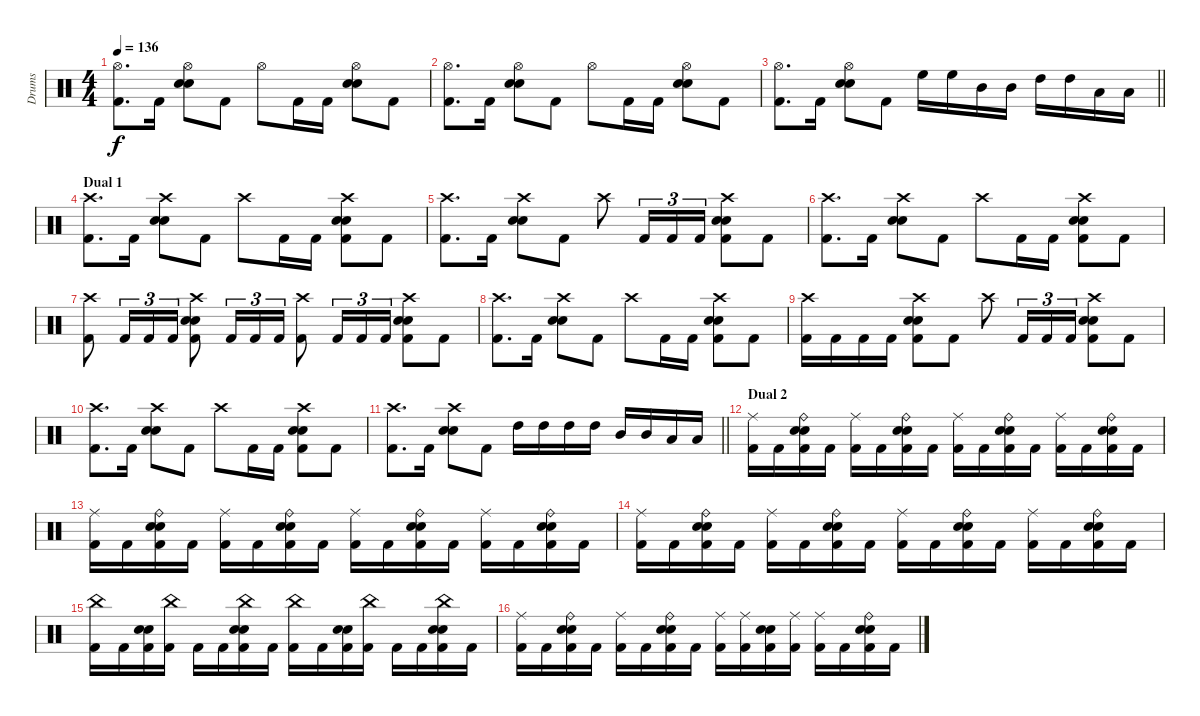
\track ("Drums" "Drums") {instrument percussion}
\staff {score}
\articulation defaults
\ts (4 4)
\tempo 136
\clef neutral
\ks c
("Hi-Hat (open)" "Kick (hit) 2").8{d dy f} "Kick (hit) 2".16 ("Hi-Hat (open)" "Electric Snare (hit)" "Snare (hit) 2").8 "Kick (hit) 2".8 "Hi-Hat (open)".8 "Kick (hit) 2".16 "Kick (hit) 2".16 ("Hi-Hat (open)" "Electric Snare (hit)" "Snare (hit) 2").8 "Kick (hit) 2".8 |
("Hi-Hat (open)" "Kick (hit) 2").8{d} "Kick (hit) 2".16 ("Hi-Hat (open)" "Electric Snare (hit)" "Snare (hit) 2").8 "Kick (hit) 2".8 "Hi-Hat (open)".8 "Kick (hit) 2".16 "Kick (hit) 2".16 ("Hi-Hat (open)" "Electric Snare (hit)" "Snare (hit) 2").8 "Kick (hit) 2".8 |
\barLineRight lightlight
("Hi-Hat (open)" "Kick (hit) 2").8{d} "Kick (hit) 2".16 ("Hi-Hat (open)" "Electric Snare (hit)" "Snare (hit) 2").8 "Kick (hit) 2".8 "High Floor Tom (hit)".16 "High Floor Tom (hit)".16 "Mid Tom (hit)".16 "Mid Tom (hit)".16 "High Tom (hit)".16 "High Tom (hit)".16 "Low Tom (hit)".16 "Low Tom (hit)".16 |
\section ("" "Dual 1")
("Crash high (hit)" "Kick (hit) 2").8{d} "Kick (hit) 2".16 ("Crash high (hit)" "Electric Snare (hit)" "Snare (hit) 2").8 "Kick (hit) 2".8 "Crash high (hit)".8 "Kick (hit) 2".16 "Kick (hit) 2".16 ("Crash high (hit)" "Electric Snare (hit)" "Snare (hit) 2" "Kick (hit) 2").8 "Kick (hit) 2".8 |
("Crash high (hit)" "Kick (hit) 2").8{d} "Kick (hit) 2".16 ("Crash high (hit)" "Electric Snare (hit)" "Snare (hit) 2").8 "Kick (hit) 2".8 "Crash high (hit)".8 "Kick (hit) 2".16{tu (3 2)} "Kick (hit) 2".16{tu (3 2)} "Kick (hit) 2".16{tu (3 2)} ("Crash high (hit)" "Electric Snare (hit)" "Snare (hit) 2" "Kick (hit) 2").8 "Kick (hit) 2".8 |
("Crash high (hit)" "Kick (hit) 2").8{d} "Kick (hit) 2".16 ("Crash high (hit)" "Electric Snare (hit)" "Snare (hit) 2").8 "Kick (hit) 2".8 "Crash high (hit)".8 "Kick (hit) 2".16 "Kick (hit) 2".16 ("Crash high (hit)" "Electric Snare (hit)" "Snare (hit) 2" "Kick (hit) 2").8 "Kick (hit) 2".8 |
("Crash high (hit)" "Kick (hit) 2").8 "Kick (hit) 2".16{tu (3 2)} "Kick (hit) 2".16{tu (3 2)} "Kick (hit) 2".16{tu (3 2)} ("Crash high (hit)" "Electric Snare (hit)" "Snare (hit) 2" "Kick (hit) 2").8 "Kick (hit) 2".16{tu (3 2)} "Kick (hit) 2".16{tu (3 2)} "Kick (hit) 2".16{tu (3 2)} ("Crash high (hit)" "Kick (hit) 2").8 "Kick (hit) 2".16{tu (3 2)} "Kick (hit) 2".16{tu (3 2)} "Kick (hit) 2".16{tu (3 2)} ("Crash high (hit)" "Electric Snare (hit)" "Snare (hit) 2" "Kick (hit) 2").8 "Kick (hit) 2".8 |
("Crash high (hit)" "Kick (hit) 2").8{d} "Kick (hit) 2".16 ("Crash high (hit)" "Electric Snare (hit)" "Snare (hit) 2").8 "Kick (hit) 2".8 "Crash high (hit)".8 "Kick (hit) 2".16 "Kick (hit) 2".16 ("Crash high (hit)" "Electric Snare (hit)" "Snare (hit) 2" "Kick (hit) 2").8 "Kick (hit) 2".8 |
("Crash high (hit)" "Kick (hit) 2").16 "Kick (hit) 2".16 "Kick (hit) 2".16 "Kick (hit) 2".16 ("Crash high (hit)" "Electric Snare (hit)" "Snare (hit) 2" "Kick (hit) 2").8 "Kick (hit) 2".8 "Crash high (hit)".8 "Kick (hit) 2".16{tu (3 2)} "Kick (hit) 2".16{tu (3 2)} "Kick (hit) 2".16{tu (3 2)} ("Crash high (hit)" "Electric Snare (hit)" "Snare (hit) 2" "Kick (hit) 2").8 "Kick (hit) 2".8 |
("Crash high (hit)" "Kick (hit) 2").8{d} "Kick (hit) 2".16 ("Crash high (hit)" "Electric Snare (hit)" "Snare (hit) 2").8 "Kick (hit) 2".8 "Crash high (hit)".8 "Kick (hit) 2".16 "Kick (hit) 2".16 ("Crash high (hit)" "Electric Snare (hit)" "Snare (hit) 2" "Kick (hit) 2").8 "Kick (hit) 2".8 |
\barLineRight lightlight
("Crash high (hit)" "Kick (hit) 2").8{d} "Kick (hit) 2".16 ("Crash high (hit)" "Electric Snare (hit)" "Snare (hit) 2").8 "Kick (hit) 2".8 "High Tom (hit)".16 "High Tom (hit)".16 "High Tom (hit)".16 "High Tom (hit)".16 "Mid Tom (hit)".16 "Mid Tom (hit)".16 "Low Tom (hit)".16 "Low Tom (hit)".16 |
\section ("" "Dual 2")
("Ride (middle)" "Kick (hit) 2").16 "Kick (hit) 2".16 ("Ride (bell)" "Electric Snare (hit)" "Snare (hit) 2" "Kick (hit) 2").16 "Kick (hit) 2".16 ("Ride (middle)" "Kick (hit) 2").16 "Kick (hit) 2".16 ("Ride (bell)" "Electric Snare (hit)" "Snare (hit) 2" "Kick (hit) 2").16 "Kick (hit) 2".16 ("Ride (middle)" "Kick (hit) 2").16 "Kick (hit) 2".16 ("Ride (bell)" "Electric Snare (hit)" "Snare (hit) 2" "Kick (hit) 2").16 "Kick (hit) 2".16 ("Ride (middle)" "Kick (hit) 2").16 "Kick (hit) 2".16 ("Ride (bell)" "Electric Snare (hit)" "Snare (hit) 2" "Kick (hit) 2").16 "Kick (hit) 2".16 |
("Ride (middle)" "Kick (hit) 2").16 "Kick (hit) 2".16 ("Ride (bell)" "Electric Snare (hit)" "Snare (hit) 2" "Kick (hit) 2").16 "Kick (hit) 2".16 ("Ride (middle)" "Kick (hit) 2").16 "Kick (hit) 2".16 ("Ride (bell)" "Electric Snare (hit)" "Snare (hit) 2" "Kick (hit) 2").16 "Kick (hit) 2".16 ("Ride (middle)" "Kick (hit) 2").16 "Kick (hit) 2".16 ("Ride (bell)" "Electric Snare (hit)" "Snare (hit) 2" "Kick (hit) 2").16 "Kick (hit) 2".16 ("Ride (middle)" "Kick (hit) 2").16 "Kick (hit) 2".16 ("Ride (bell)" "Electric Snare (hit)" "Snare (hit) 2" "Kick (hit) 2").16 "Kick (hit) 2".16 |
("Ride (middle)" "Kick (hit) 2").16 "Kick (hit) 2".16 ("Ride (bell)" "Electric Snare (hit)" "Snare (hit) 2" "Kick (hit) 2").16 "Kick (hit) 2".16 ("Ride (middle)" "Kick (hit) 2").16 "Kick (hit) 2".16 ("Ride (bell)" "Electric Snare (hit)" "Snare (hit) 2" "Kick (hit) 2").16 "Kick (hit) 2".16 ("Ride (middle)" "Kick (hit) 2").16 "Kick (hit) 2".16 ("Ride (bell)" "Electric Snare (hit)" "Snare (hit) 2" "Kick (hit) 2").16 "Kick (hit) 2".16 ("Ride (middle)" "Kick (hit) 2").16 "Kick (hit) 2".16 ("Ride (bell)" "Electric Snare (hit)" "Snare (hit) 2" "Kick (hit) 2").16 "Kick (hit) 2".16 |
("China (hit)" "Kick (hit) 2").16 "Kick (hit) 2".16 ("Electric Snare (hit)" "Snare (hit) 2" "Kick (hit) 2").16 ("China (hit)" "Kick (hit) 2").16 "Kick (hit) 2".16 "Kick (hit) 2".16 ("China (hit)" "Electric Snare (hit)" "Snare (hit) 2" "Kick (hit) 2").16 "Kick (hit) 2".16 ("China (hit)" "Kick (hit) 2").16 "Kick (hit) 2".16 ("Electric Snare (hit)" "Snare (hit) 2" "Kick (hit) 2").16 ("China (hit)" "Kick (hit) 2").16 "Kick (hit) 2".16 "Kick (hit) 2".16 ("China (hit)" "Electric Snare (hit)" "Snare (hit) 2" "Kick (hit) 2").16 "Kick (hit) 2".16 |
("Ride (middle)" "Kick (hit) 2").16 "Kick (hit) 2".16 ("Ride (bell)" "Electric Snare (hit)" "Snare (hit) 2" "Kick (hit) 2").16 "Kick (hit) 2".16 ("Ride (middle)" "Kick (hit) 2").16 "Kick (hit) 2".16 ("Ride (bell)" "Electric Snare (hit)" "Snare (hit) 2" "Kick (hit) 2").16 "Kick (hit) 2".16 ("Ride (middle)" "Kick (hit) 2").16 ("Ride (middle)" "Kick (hit) 2").16 ("Electric Snare (hit)" "Snare (hit) 2" "Kick (hit) 2").16 ("Ride (middle)" "Kick (hit) 2").16 ("Ride (middle)" "Kick (hit) 2").16 "Kick (hit) 2".16 ("Ride (bell)" "Electric Snare (hit)" "Snare (hit) 2" "Kick (hit) 2").16 "Kick (hit) 2".16
